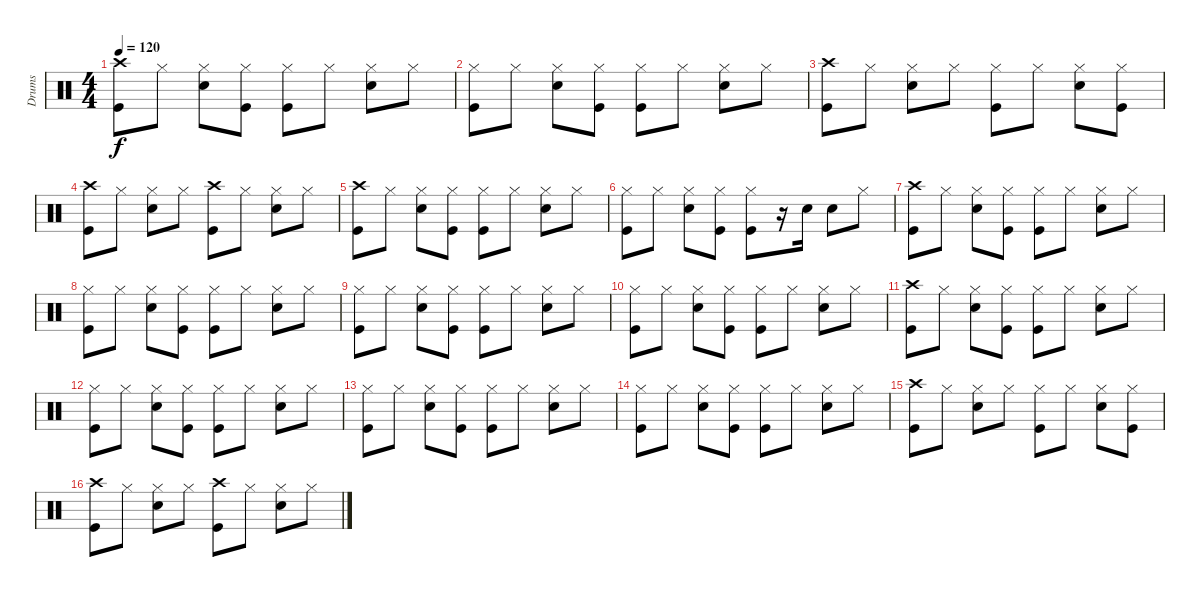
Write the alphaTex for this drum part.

\track ("Drums" "Drums") {instrument percussion}
\staff {score}
\articulation defaults
\ts (4 4)
\tempo 120
\clef neutral
\ks c
("Crash high (hit)" "Kick (hit)").8{dy f} "Hi-Hat (closed)".8 ("Hi-Hat (closed)" "Snare (hit) 2").8 ("Hi-Hat (closed)" "Kick (hit)").8 ("Hi-Hat (closed)" "Kick (hit)").8 "Hi-Hat (closed)".8 ("Hi-Hat (closed)" "Snare (hit) 2").8 "Hi-Hat (closed)".8 |
("Hi-Hat (closed)" "Kick (hit)").8 "Hi-Hat (closed)".8 ("Hi-Hat (closed)" "Snare (hit) 2").8 ("Hi-Hat (closed)" "Kick (hit)").8 ("Hi-Hat (closed)" "Kick (hit)").8 "Hi-Hat (closed)".8 ("Hi-Hat (closed)" "Snare (hit) 2").8 "Hi-Hat (closed)".8 |
("Crash high (hit)" "Kick (hit)").8 "Hi-Hat (closed)".8 ("Hi-Hat (closed)" "Snare (hit) 2").8 "Hi-Hat (closed)".8 ("Hi-Hat (closed)" "Kick (hit)").8 "Hi-Hat (closed)".8 ("Hi-Hat (closed)" "Snare (hit) 2").8 ("Hi-Hat (closed)" "Kick (hit)").8 |
("Crash high (hit)" "Kick (hit)").8 "Hi-Hat (closed)".8 ("Hi-Hat (closed)" "Snare (hit) 2").8 "Hi-Hat (closed)".8 ("Crash high (hit)" "Kick (hit)").8 "Hi-Hat (closed)".8 ("Hi-Hat (closed)" "Snare (hit) 2").8 "Hi-Hat (closed)".8 |
("Crash high (hit)" "Kick (hit)").8 "Hi-Hat (closed)".8 ("Hi-Hat (closed)" "Snare (hit) 2").8 ("Hi-Hat (closed)" "Kick (hit)").8 ("Hi-Hat (closed)" "Kick (hit)").8 "Hi-Hat (closed)".8 ("Hi-Hat (closed)" "Snare (hit) 2").8 "Hi-Hat (closed)".8 |
("Hi-Hat (closed)" "Kick (hit)").8 "Hi-Hat (closed)".8 ("Hi-Hat (closed)" "Snare (hit) 2").8 ("Hi-Hat (closed)" "Kick (hit)").8 ("Hi-Hat (closed)" "Kick (hit)").8 r.16 "Snare (hit) 2".16 "Snare (hit) 2".8 "Hi-Hat (closed)".8 |
("Crash high (hit)" "Kick (hit)").8 "Hi-Hat (closed)".8 ("Hi-Hat (closed)" "Snare (hit) 2").8 ("Hi-Hat (closed)" "Kick (hit)").8 ("Hi-Hat (closed)" "Kick (hit)").8 "Hi-Hat (closed)".8 ("Hi-Hat (closed)" "Snare (hit) 2").8 "Hi-Hat (closed)".8 |
("Hi-Hat (closed)" "Kick (hit)").8 "Hi-Hat (closed)".8 ("Hi-Hat (closed)" "Snare (hit) 2").8 ("Hi-Hat (closed)" "Kick (hit)").8 ("Hi-Hat (closed)" "Kick (hit)").8 "Hi-Hat (closed)".8 ("Hi-Hat (closed)" "Snare (hit) 2").8 "Hi-Hat (closed)".8 |
("Hi-Hat (closed)" "Kick (hit)").8 "Hi-Hat (closed)".8 ("Hi-Hat (closed)" "Snare (hit) 2").8 ("Hi-Hat (closed)" "Kick (hit)").8 ("Hi-Hat (closed)" "Kick (hit)").8 "Hi-Hat (closed)".8 ("Hi-Hat (closed)" "Snare (hit) 2").8 "Hi-Hat (closed)".8 |
("Hi-Hat (closed)" "Kick (hit)").8 "Hi-Hat (closed)".8 ("Hi-Hat (closed)" "Snare (hit) 2").8 ("Hi-Hat (closed)" "Kick (hit)").8 ("Hi-Hat (closed)" "Kick (hit)").8 "Hi-Hat (closed)".8 ("Hi-Hat (closed)" "Snare (hit) 2").8 "Hi-Hat (closed)".8 |
("Crash high (hit)" "Kick (hit)").8 "Hi-Hat (closed)".8 ("Hi-Hat (closed)" "Snare (hit) 2").8 ("Hi-Hat (closed)" "Kick (hit)").8 ("Hi-Hat (closed)" "Kick (hit)").8 "Hi-Hat (closed)".8 ("Hi-Hat (closed)" "Snare (hit) 2").8 "Hi-Hat (closed)".8 |
("Hi-Hat (closed)" "Kick (hit)").8 "Hi-Hat (closed)".8 ("Hi-Hat (closed)" "Snare (hit) 2").8 ("Hi-Hat (closed)" "Kick (hit)").8 ("Hi-Hat (closed)" "Kick (hit)").8 "Hi-Hat (closed)".8 ("Hi-Hat (closed)" "Snare (hit) 2").8 "Hi-Hat (closed)".8 |
("Hi-Hat (closed)" "Kick (hit)").8 "Hi-Hat (closed)".8 ("Hi-Hat (closed)" "Snare (hit) 2").8 ("Hi-Hat (closed)" "Kick (hit)").8 ("Hi-Hat (closed)" "Kick (hit)").8 "Hi-Hat (closed)".8 ("Hi-Hat (closed)" "Snare (hit) 2").8 "Hi-Hat (closed)".8 |
("Hi-Hat (closed)" "Kick (hit)").8 "Hi-Hat (closed)".8 ("Hi-Hat (closed)" "Snare (hit) 2").8 ("Hi-Hat (closed)" "Kick (hit)").8 ("Hi-Hat (closed)" "Kick (hit)").8 "Hi-Hat (closed)".8 ("Hi-Hat (closed)" "Snare (hit) 2").8 "Hi-Hat (closed)".8 |
("Crash high (hit)" "Kick (hit)").8 "Hi-Hat (closed)".8 ("Hi-Hat (closed)" "Snare (hit) 2").8 "Hi-Hat (closed)".8 ("Hi-Hat (closed)" "Kick (hit)").8 "Hi-Hat (closed)".8 ("Hi-Hat (closed)" "Snare (hit) 2").8 ("Hi-Hat (closed)" "Kick (hit)").8 |
("Crash high (hit)" "Kick (hit)").8 "Hi-Hat (closed)".8 ("Hi-Hat (closed)" "Snare (hit) 2").8 "Hi-Hat (closed)".8 ("Crash high (hit)" "Kick (hit)").8 "Hi-Hat (closed)".8 ("Hi-Hat (closed)" "Snare (hit) 2").8 "Hi-Hat (closed)".8
